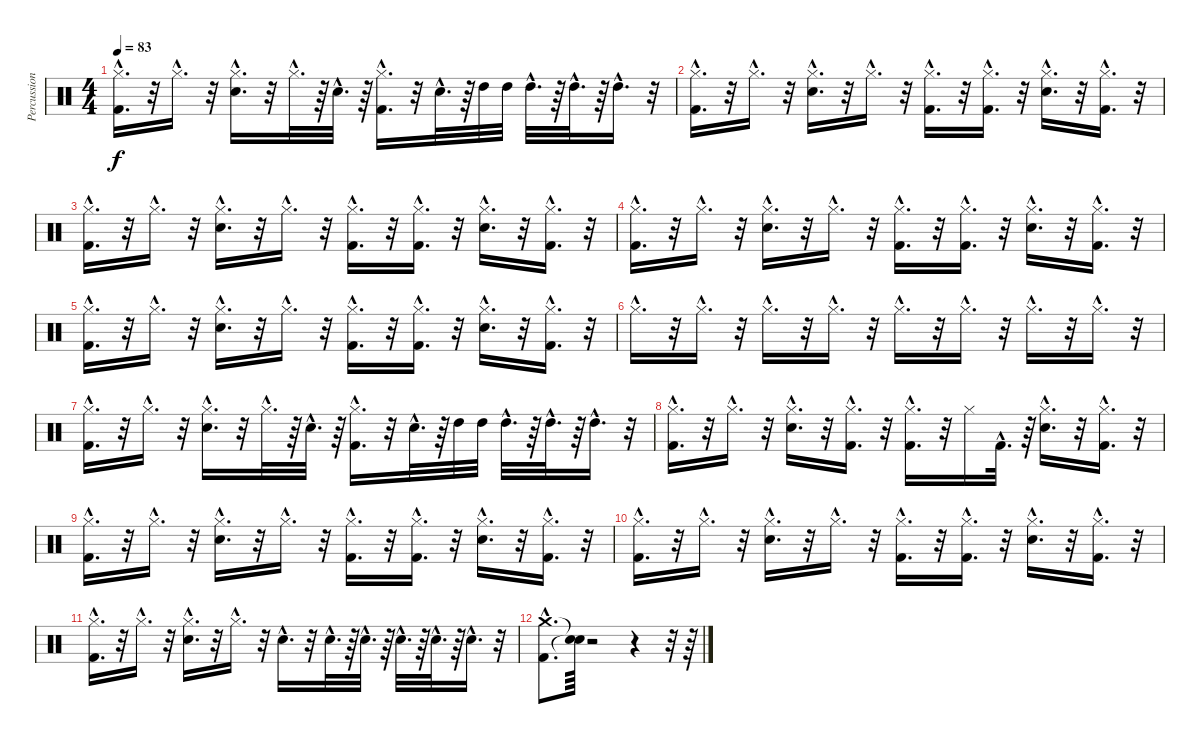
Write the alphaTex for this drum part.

\track ("Percussion" "Percussion") {instrument percussion}
\staff {score}
\articulation defaults
\ts (4 4)
\tempo 83
\clef neutral
\ks c
("Hi-Hat (closed)"{hac} "Kick (hit) 2"{hac}).16{d dy f} r.32 "Hi-Hat (closed)"{hac}.16{d} r.32 ("Hi-Hat (closed)"{hac} "Snare (hit) 2"{hac}).16{d} r.32 "Hi-Hat (closed)"{hac}.32{d} r.64 "Snare (hit) 2"{hac}.32{d} r.64 ("Kick (hit) 2"{hac} "Hi-Hat (closed)"{hac}).16{d} r.32 "Snare (hit) 2"{hac}.32{d} r.64 "High Tom (hit)".32 "High Tom (hit)".32 "High Tom (hit)"{hac}.32{d} r.64 "High Tom (hit)"{hac}.32{d} r.64 "High Tom (hit)"{hac}.16{d} r.32 |
("Hi-Hat (closed)"{hac} "Kick (hit) 2"{hac}).16{d} r.32 "Hi-Hat (closed)"{hac}.16{d} r.32 ("Snare (hit) 2"{hac} "Hi-Hat (closed)"{hac}).16{d} r.32 "Hi-Hat (closed)"{hac}.16{d} r.32 ("Hi-Hat (closed)"{hac} "Kick (hit) 2"{hac}).16{d} r.32 ("Hi-Hat (closed)"{hac} "Kick (hit) 2"{hac}).16{d} r.32 ("Snare (hit) 2"{hac} "Hi-Hat (closed)"{hac}).16{d} r.32 ("Hi-Hat (closed)"{hac} "Kick (hit) 2"{hac}).16{d} r.32 |
("Kick (hit) 2"{hac} "Hi-Hat (closed)"{hac}).16{d} r.32 "Hi-Hat (closed)"{hac}.16{d} r.32 ("Hi-Hat (closed)"{hac} "Snare (hit) 2"{hac}).16{d} r.32 "Hi-Hat (closed)"{hac}.16{d} r.32 ("Kick (hit) 2"{hac} "Hi-Hat (closed)"{hac}).16{d} r.32 ("Hi-Hat (closed)"{hac} "Kick (hit) 2"{hac}).16{d} r.32 ("Snare (hit) 2"{hac} "Hi-Hat (closed)"{hac}).16{d} r.32 ("Kick (hit) 2"{hac} "Hi-Hat (closed)"{hac}).16{d} r.32 |
("Kick (hit) 2"{hac} "Hi-Hat (closed)"{hac}).16{d} r.32 "Hi-Hat (closed)"{hac}.16{d} r.32 ("Snare (hit) 2"{hac} "Hi-Hat (closed)"{hac}).16{d} r.32 "Hi-Hat (closed)"{hac}.16{d} r.32 ("Kick (hit) 2"{hac} "Hi-Hat (closed)"{hac}).16{d} r.32 ("Kick (hit) 2"{hac} "Hi-Hat (closed)"{hac}).16{d} r.32 ("Hi-Hat (closed)"{hac} "Snare (hit) 2"{hac}).16{d} r.32 ("Hi-Hat (closed)"{hac} "Kick (hit) 2"{hac}).16{d} r.32 |
("Kick (hit) 2"{hac} "Hi-Hat (closed)"{hac}).16{d} r.32 "Hi-Hat (closed)"{hac}.16{d} r.32 ("Hi-Hat (closed)"{hac} "Snare (hit) 2"{hac}).16{d} r.32 "Hi-Hat (closed)"{hac}.16{d} r.32 ("Kick (hit) 2"{hac} "Hi-Hat (closed)"{hac}).16{d} r.32 ("Kick (hit) 2"{hac} "Hi-Hat (closed)"{hac}).16{d} r.32 ("Snare (hit) 2"{hac} "Hi-Hat (closed)"{hac}).16{d} r.32 ("Kick (hit) 2"{hac} "Hi-Hat (closed)"{hac}).16{d} r.32 |
"Hi-Hat (closed)"{hac}.16{d} r.32 "Hi-Hat (closed)"{hac}.16{d} r.32 "Hi-Hat (closed)"{hac}.16{d} r.32 "Hi-Hat (closed)"{hac}.16{d} r.32 "Hi-Hat (closed)"{hac}.16{d} r.32 "Hi-Hat (closed)"{hac}.16{d} r.32 "Hi-Hat (closed)"{hac}.16{d} r.32 "Hi-Hat (closed)"{hac}.16{d} r.32 |
("Kick (hit) 2"{hac} "Hi-Hat (closed)"{hac}).16{d} r.32 "Hi-Hat (closed)"{hac}.16{d} r.32 ("Hi-Hat (closed)"{hac} "Snare (hit) 2"{hac}).16{d} r.32 "Hi-Hat (closed)"{hac}.32{d} r.64 "Snare (hit) 2"{hac}.32{d} r.64 ("Kick (hit) 2"{hac} "Hi-Hat (closed)"{hac}).16{d} r.32 "Snare (hit) 2"{hac}.32{d} r.64 "High Tom (hit)".32 "High Tom (hit)".32 "High Tom (hit)"{hac}.32{d} r.64 "High Tom (hit)"{hac}.32{d} r.64 "High Tom (hit)"{hac}.16{d} r.32 |
("Kick (hit) 2"{hac} "Hi-Hat (closed)"{hac}).16{d} r.32 "Hi-Hat (closed)"{hac}.16{d} r.32 ("Snare (hit) 2"{hac} "Hi-Hat (closed)"{hac}).16{d} r.32 ("Kick (hit) 2"{hac} "Hi-Hat (closed)"{hac}).16{d} r.32 ("Hi-Hat (closed)"{hac} "Kick (hit) 2"{hac}).16{d} r.32 "Hi-Hat (closed)".16 "Kick (hit) 2"{hac}.32{d} r.64 ("Snare (hit) 2"{hac} "Hi-Hat (closed)"{hac}).16{d} r.32 ("Hi-Hat (closed)"{hac} "Kick (hit) 2"{hac}).16{d} r.32 |
("Hi-Hat (closed)"{hac} "Kick (hit) 2"{hac}).16{d} r.32 "Hi-Hat (closed)"{hac}.16{d} r.32 ("Snare (hit) 2"{hac} "Hi-Hat (closed)"{hac}).16{d} r.32 "Hi-Hat (closed)"{hac}.16{d} r.32 ("Kick (hit) 2"{hac} "Hi-Hat (closed)"{hac}).16{d} r.32 ("Hi-Hat (closed)"{hac} "Kick (hit) 2"{hac}).16{d} r.32 ("Hi-Hat (closed)"{hac} "Snare (hit) 2"{hac}).16{d} r.32 ("Hi-Hat (closed)"{hac} "Kick (hit) 2"{hac}).16{d} r.32 |
("Hi-Hat (closed)"{hac} "Kick (hit) 2"{hac}).16{d} r.32 "Hi-Hat (closed)"{hac}.16{d} r.32 ("Snare (hit) 2"{hac} "Hi-Hat (closed)"{hac}).16{d} r.32 "Hi-Hat (closed)"{hac}.16{d} r.32 ("Kick (hit) 2"{hac} "Hi-Hat (closed)"{hac}).16{d} r.32 ("Kick (hit) 2"{hac} "Hi-Hat (closed)"{hac}).16{d} r.32 ("Hi-Hat (closed)"{hac} "Snare (hit) 2"{hac}).16{d} r.32 ("Kick (hit) 2"{hac} "Hi-Hat (closed)"{hac}).16{d} r.32 |
("Hi-Hat (closed)"{hac} "Kick (hit) 2"{hac}).16{d} r.32 "Hi-Hat (closed)"{hac}.16{d} r.32 ("Snare (hit) 2"{hac} "Hi-Hat (closed)"{hac}).16{d} r.32 "Hi-Hat (closed)"{hac}.16{d} r.32 "Snare (hit) 2"{hac}.16{d} r.32 "Snare (hit) 2"{hac}.32{d} r.64 "Snare (hit) 2"{hac}.32{d} r.64 "Snare (hit) 2"{hac}.32{d} r.64 "Snare (hit) 2"{hac}.32{d} r.64 "Snare (hit) 2"{hac}.16{d} r.32 |
("Crash medium (hit)"{hac} "Kick (hit) 2"{hac}).8{d} ("Snare (hit)"{t} "Snare (hit)"{t}).64 r.2 r.4 r.32 r.64
